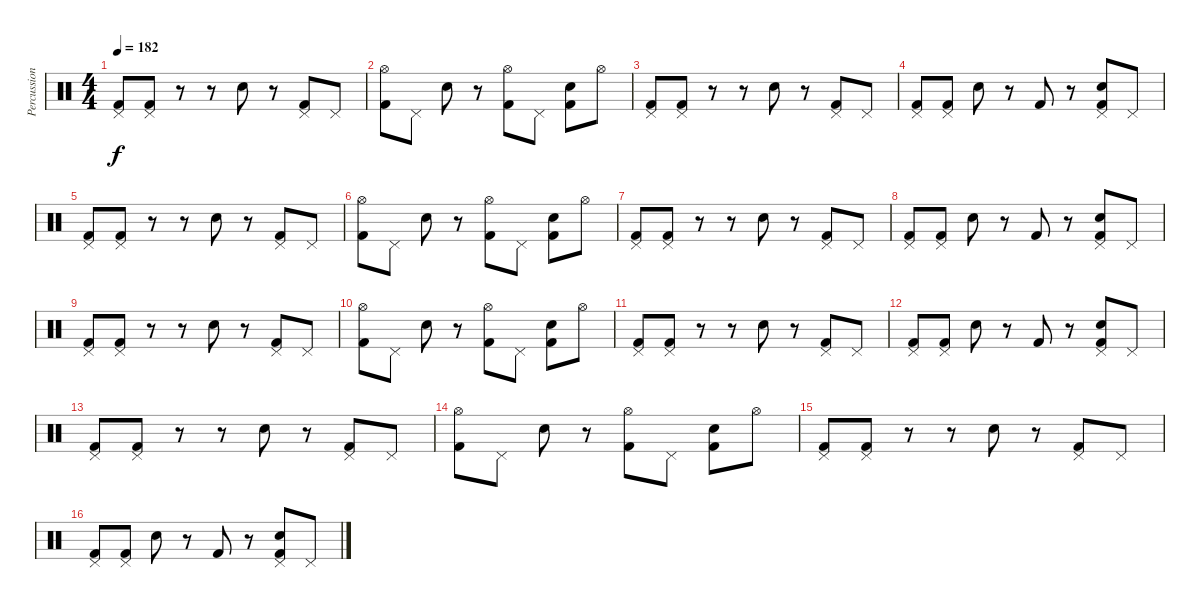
\track ("Percussion" "Percussion") {instrument percussion}
\staff {score}
\articulation defaults
\ts (4 4)
\tempo 182
\clef neutral
\ks c
("Pedal Hi-Hat (hit)" "Kick (hit) 2").8{dy f} ("Pedal Hi-Hat (hit)" "Kick (hit) 2").8 r.8 r.8 "Snare (hit) 2".8 r.8 ("Pedal Hi-Hat (hit)" "Kick (hit) 2").8 "Pedal Hi-Hat (hit)".8 |
("Hi-Hat (open)" "Kick (hit) 2").8 "Pedal Hi-Hat (hit)".8 "Snare (hit) 2".8 r.8 ("Hi-Hat (open)" "Kick (hit) 2").8 "Pedal Hi-Hat (hit)".8 ("Snare (hit) 2" "Kick (hit) 2").8 "Hi-Hat (open)".8 |
("Pedal Hi-Hat (hit)" "Kick (hit) 2").8 ("Pedal Hi-Hat (hit)" "Kick (hit) 2").8 r.8 r.8 "Snare (hit) 2".8 r.8 ("Pedal Hi-Hat (hit)" "Kick (hit) 2").8 "Pedal Hi-Hat (hit)".8 |
("Pedal Hi-Hat (hit)" "Kick (hit) 2").8 ("Pedal Hi-Hat (hit)" "Kick (hit) 2").8 "Snare (hit) 2".8 r.8 "Kick (hit) 2".8 r.8 ("Pedal Hi-Hat (hit)" "Snare (hit) 2" "Kick (hit) 2").8 "Pedal Hi-Hat (hit)".8 |
("Pedal Hi-Hat (hit)" "Kick (hit) 2").8 ("Pedal Hi-Hat (hit)" "Kick (hit) 2").8 r.8 r.8 "Snare (hit) 2".8 r.8 ("Pedal Hi-Hat (hit)" "Kick (hit) 2").8 "Pedal Hi-Hat (hit)".8 |
("Hi-Hat (open)" "Kick (hit) 2").8 "Pedal Hi-Hat (hit)".8 "Snare (hit) 2".8 r.8 ("Hi-Hat (open)" "Kick (hit) 2").8 "Pedal Hi-Hat (hit)".8 ("Snare (hit) 2" "Kick (hit) 2").8 "Hi-Hat (open)".8 |
("Pedal Hi-Hat (hit)" "Kick (hit) 2").8 ("Pedal Hi-Hat (hit)" "Kick (hit) 2").8 r.8 r.8 "Snare (hit) 2".8 r.8 ("Pedal Hi-Hat (hit)" "Kick (hit) 2").8 "Pedal Hi-Hat (hit)".8 |
("Pedal Hi-Hat (hit)" "Kick (hit) 2").8 ("Pedal Hi-Hat (hit)" "Kick (hit) 2").8 "Snare (hit) 2".8 r.8 "Kick (hit) 2".8 r.8 ("Pedal Hi-Hat (hit)" "Snare (hit) 2" "Kick (hit) 2").8 "Pedal Hi-Hat (hit)".8 |
("Pedal Hi-Hat (hit)" "Kick (hit) 2").8 ("Pedal Hi-Hat (hit)" "Kick (hit) 2").8 r.8 r.8 "Snare (hit) 2".8 r.8 ("Pedal Hi-Hat (hit)" "Kick (hit) 2").8 "Pedal Hi-Hat (hit)".8 |
("Hi-Hat (open)" "Kick (hit) 2").8 "Pedal Hi-Hat (hit)".8 "Snare (hit) 2".8 r.8 ("Hi-Hat (open)" "Kick (hit) 2").8 "Pedal Hi-Hat (hit)".8 ("Snare (hit) 2" "Kick (hit) 2").8 "Hi-Hat (open)".8 |
("Pedal Hi-Hat (hit)" "Kick (hit) 2").8 ("Pedal Hi-Hat (hit)" "Kick (hit) 2").8 r.8 r.8 "Snare (hit) 2".8 r.8 ("Pedal Hi-Hat (hit)" "Kick (hit) 2").8 "Pedal Hi-Hat (hit)".8 |
("Pedal Hi-Hat (hit)" "Kick (hit) 2").8 ("Pedal Hi-Hat (hit)" "Kick (hit) 2").8 "Snare (hit) 2".8 r.8 "Kick (hit) 2".8 r.8 ("Pedal Hi-Hat (hit)" "Snare (hit) 2" "Kick (hit) 2").8 "Pedal Hi-Hat (hit)".8 |
("Pedal Hi-Hat (hit)" "Kick (hit) 2").8 ("Pedal Hi-Hat (hit)" "Kick (hit) 2").8 r.8 r.8 "Snare (hit) 2".8 r.8 ("Pedal Hi-Hat (hit)" "Kick (hit) 2").8 "Pedal Hi-Hat (hit)".8 |
("Hi-Hat (open)" "Kick (hit) 2").8 "Pedal Hi-Hat (hit)".8 "Snare (hit) 2".8 r.8 ("Hi-Hat (open)" "Kick (hit) 2").8 "Pedal Hi-Hat (hit)".8 ("Snare (hit) 2" "Kick (hit) 2").8 "Hi-Hat (open)".8 |
("Pedal Hi-Hat (hit)" "Kick (hit) 2").8 ("Pedal Hi-Hat (hit)" "Kick (hit) 2").8 r.8 r.8 "Snare (hit) 2".8 r.8 ("Pedal Hi-Hat (hit)" "Kick (hit) 2").8 "Pedal Hi-Hat (hit)".8 |
("Pedal Hi-Hat (hit)" "Kick (hit) 2").8 ("Pedal Hi-Hat (hit)" "Kick (hit) 2").8 "Snare (hit) 2".8 r.8 "Kick (hit) 2".8 r.8 ("Pedal Hi-Hat (hit)" "Snare (hit) 2" "Kick (hit) 2").8 "Pedal Hi-Hat (hit)".8
